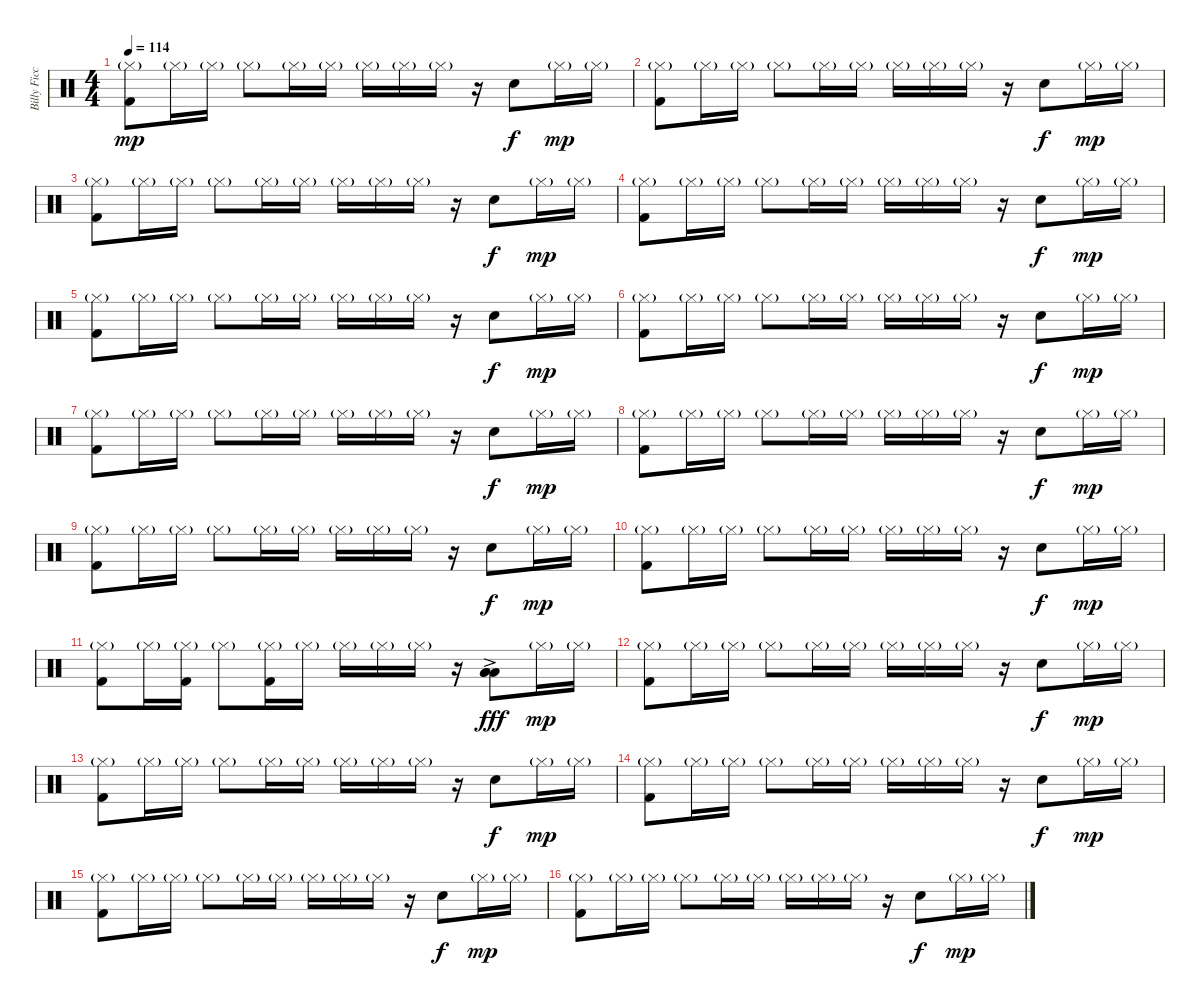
\track ("Billy Ficca" "Billy Ficc") {instrument percussion}
\staff {score}
\articulation defaults
\ts (4 4)
\tempo 114
\clef neutral
\ks c
("Hi-Hat (closed)"{g} "Kick (hit) 2").8{dy mp} "Hi-Hat (closed)"{g}.16 "Hi-Hat (closed)"{g}.16 "Hi-Hat (closed)"{g}.8 "Hi-Hat (closed)"{g}.16 "Hi-Hat (closed)"{g}.16 "Hi-Hat (closed)"{g}.16 "Hi-Hat (closed)"{g}.16 "Hi-Hat (closed)"{g}.16 r.16 "Electric Snare (hit)".8{dy f} "Hi-Hat (closed)"{g}.16{dy mp} "Hi-Hat (closed)"{g}.16 |
("Hi-Hat (closed)"{g} "Kick (hit) 2").8 "Hi-Hat (closed)"{g}.16 "Hi-Hat (closed)"{g}.16 "Hi-Hat (closed)"{g}.8 "Hi-Hat (closed)"{g}.16 "Hi-Hat (closed)"{g}.16 "Hi-Hat (closed)"{g}.16 "Hi-Hat (closed)"{g}.16 "Hi-Hat (closed)"{g}.16 r.16 "Electric Snare (hit)".8{dy f} "Hi-Hat (closed)"{g}.16{dy mp} "Hi-Hat (closed)"{g}.16 |
("Hi-Hat (closed)"{g} "Kick (hit) 2").8 "Hi-Hat (closed)"{g}.16 "Hi-Hat (closed)"{g}.16 "Hi-Hat (closed)"{g}.8 "Hi-Hat (closed)"{g}.16 "Hi-Hat (closed)"{g}.16 "Hi-Hat (closed)"{g}.16 "Hi-Hat (closed)"{g}.16 "Hi-Hat (closed)"{g}.16 r.16 "Electric Snare (hit)".8{dy f} "Hi-Hat (closed)"{g}.16{dy mp} "Hi-Hat (closed)"{g}.16 |
("Hi-Hat (closed)"{g} "Kick (hit) 2").8 "Hi-Hat (closed)"{g}.16 "Hi-Hat (closed)"{g}.16 "Hi-Hat (closed)"{g}.8 "Hi-Hat (closed)"{g}.16 "Hi-Hat (closed)"{g}.16 "Hi-Hat (closed)"{g}.16 "Hi-Hat (closed)"{g}.16 "Hi-Hat (closed)"{g}.16 r.16 "Electric Snare (hit)".8{dy f} "Hi-Hat (closed)"{g}.16{dy mp} "Hi-Hat (closed)"{g}.16 |
("Hi-Hat (closed)"{g} "Kick (hit) 2").8 "Hi-Hat (closed)"{g}.16 "Hi-Hat (closed)"{g}.16 "Hi-Hat (closed)"{g}.8 "Hi-Hat (closed)"{g}.16 "Hi-Hat (closed)"{g}.16 "Hi-Hat (closed)"{g}.16 "Hi-Hat (closed)"{g}.16 "Hi-Hat (closed)"{g}.16 r.16 "Electric Snare (hit)".8{dy f} "Hi-Hat (closed)"{g}.16{dy mp} "Hi-Hat (closed)"{g}.16 |
("Hi-Hat (closed)"{g} "Kick (hit) 2").8 "Hi-Hat (closed)"{g}.16 "Hi-Hat (closed)"{g}.16 "Hi-Hat (closed)"{g}.8 "Hi-Hat (closed)"{g}.16 "Hi-Hat (closed)"{g}.16 "Hi-Hat (closed)"{g}.16 "Hi-Hat (closed)"{g}.16 "Hi-Hat (closed)"{g}.16 r.16 "Electric Snare (hit)".8{dy f} "Hi-Hat (closed)"{g}.16{dy mp} "Hi-Hat (closed)"{g}.16 |
("Hi-Hat (closed)"{g} "Kick (hit) 2").8 "Hi-Hat (closed)"{g}.16 "Hi-Hat (closed)"{g}.16 "Hi-Hat (closed)"{g}.8 "Hi-Hat (closed)"{g}.16 "Hi-Hat (closed)"{g}.16 "Hi-Hat (closed)"{g}.16 "Hi-Hat (closed)"{g}.16 "Hi-Hat (closed)"{g}.16 r.16 "Electric Snare (hit)".8{dy f} "Hi-Hat (closed)"{g}.16{dy mp} "Hi-Hat (closed)"{g}.16 |
("Hi-Hat (closed)"{g} "Kick (hit) 2").8 "Hi-Hat (closed)"{g}.16 "Hi-Hat (closed)"{g}.16 "Hi-Hat (closed)"{g}.8 "Hi-Hat (closed)"{g}.16 "Hi-Hat (closed)"{g}.16 "Hi-Hat (closed)"{g}.16 "Hi-Hat (closed)"{g}.16 "Hi-Hat (closed)"{g}.16 r.16 "Electric Snare (hit)".8{dy f} "Hi-Hat (closed)"{g}.16{dy mp} "Hi-Hat (closed)"{g}.16 |
("Hi-Hat (closed)"{g} "Kick (hit) 2").8 "Hi-Hat (closed)"{g}.16 "Hi-Hat (closed)"{g}.16 "Hi-Hat (closed)"{g}.8 "Hi-Hat (closed)"{g}.16 "Hi-Hat (closed)"{g}.16 "Hi-Hat (closed)"{g}.16 "Hi-Hat (closed)"{g}.16 "Hi-Hat (closed)"{g}.16 r.16 "Electric Snare (hit)".8{dy f} "Hi-Hat (closed)"{g}.16{dy mp} "Hi-Hat (closed)"{g}.16 |
("Hi-Hat (closed)"{g} "Kick (hit) 2").8 "Hi-Hat (closed)"{g}.16 "Hi-Hat (closed)"{g}.16 "Hi-Hat (closed)"{g}.8 "Hi-Hat (closed)"{g}.16 "Hi-Hat (closed)"{g}.16 "Hi-Hat (closed)"{g}.16 "Hi-Hat (closed)"{g}.16 "Hi-Hat (closed)"{g}.16 r.16 "Electric Snare (hit)".8{dy f} "Hi-Hat (closed)"{g}.16{dy mp} "Hi-Hat (closed)"{g}.16 |
("Hi-Hat (closed)"{g} "Kick (hit) 2").8 "Hi-Hat (closed)"{g}.16 ("Hi-Hat (closed)"{g} "Kick (hit) 2").16 "Hi-Hat (closed)"{g}.8 ("Hi-Hat (closed)"{g} "Kick (hit) 2").16 "Hi-Hat (closed)"{g}.16 "Hi-Hat (closed)"{g}.16 "Hi-Hat (closed)"{g}.16 "Hi-Hat (closed)"{g}.16 r.16 ("Low Tom (hit)"{ac} "Low Floor Tom (hit)" "Low Floor Tom (hit)").8{dy fff} "Hi-Hat (closed)"{g}.16{dy mp} "Hi-Hat (closed)"{g}.16 |
("Hi-Hat (closed)"{g} "Kick (hit) 2").8 "Hi-Hat (closed)"{g}.16 "Hi-Hat (closed)"{g}.16 "Hi-Hat (closed)"{g}.8 "Hi-Hat (closed)"{g}.16 "Hi-Hat (closed)"{g}.16 "Hi-Hat (closed)"{g}.16 "Hi-Hat (closed)"{g}.16 "Hi-Hat (closed)"{g}.16 r.16 "Electric Snare (hit)".8{dy f} "Hi-Hat (closed)"{g}.16{dy mp} "Hi-Hat (closed)"{g}.16 |
("Hi-Hat (closed)"{g} "Kick (hit) 2").8 "Hi-Hat (closed)"{g}.16 "Hi-Hat (closed)"{g}.16 "Hi-Hat (closed)"{g}.8 "Hi-Hat (closed)"{g}.16 "Hi-Hat (closed)"{g}.16 "Hi-Hat (closed)"{g}.16 "Hi-Hat (closed)"{g}.16 "Hi-Hat (closed)"{g}.16 r.16 "Electric Snare (hit)".8{dy f} "Hi-Hat (closed)"{g}.16{dy mp} "Hi-Hat (closed)"{g}.16 |
("Hi-Hat (closed)"{g} "Kick (hit) 2").8 "Hi-Hat (closed)"{g}.16 "Hi-Hat (closed)"{g}.16 "Hi-Hat (closed)"{g}.8 "Hi-Hat (closed)"{g}.16 "Hi-Hat (closed)"{g}.16 "Hi-Hat (closed)"{g}.16 "Hi-Hat (closed)"{g}.16 "Hi-Hat (closed)"{g}.16 r.16 "Electric Snare (hit)".8{dy f} "Hi-Hat (closed)"{g}.16{dy mp} "Hi-Hat (closed)"{g}.16 |
("Hi-Hat (closed)"{g} "Kick (hit) 2").8 "Hi-Hat (closed)"{g}.16 "Hi-Hat (closed)"{g}.16 "Hi-Hat (closed)"{g}.8 "Hi-Hat (closed)"{g}.16 "Hi-Hat (closed)"{g}.16 "Hi-Hat (closed)"{g}.16 "Hi-Hat (closed)"{g}.16 "Hi-Hat (closed)"{g}.16 r.16 "Electric Snare (hit)".8{dy f} "Hi-Hat (closed)"{g}.16{dy mp} "Hi-Hat (closed)"{g}.16 |
("Hi-Hat (closed)"{g} "Kick (hit) 2").8 "Hi-Hat (closed)"{g}.16 "Hi-Hat (closed)"{g}.16 "Hi-Hat (closed)"{g}.8 "Hi-Hat (closed)"{g}.16 "Hi-Hat (closed)"{g}.16 "Hi-Hat (closed)"{g}.16 "Hi-Hat (closed)"{g}.16 "Hi-Hat (closed)"{g}.16 r.16 "Electric Snare (hit)".8{dy f} "Hi-Hat (closed)"{g}.16{dy mp} "Hi-Hat (closed)"{g}.16
